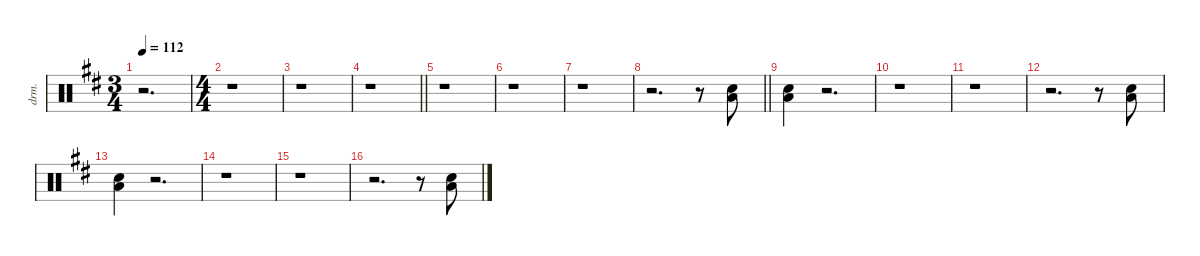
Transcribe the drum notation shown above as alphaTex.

\defaultSystemsLayout 4
\hideDynamics
\bracketExtendMode nobrackets
\otherSystemsTrackNameOrientation horizontal
\track ("Lars - Drums" "drm.") {defaultSystemsLayout 4 instrument percussion}
\staff {score}
\articulation defaults
\ts (3 4)
\beaming (8 2 2 2)
\tempo 112
\clef neutral
\ks bminor
r.2{d dy f beam Down} |
\ts (4 4)
\beaming (8 2 2 2 2)
r.1{beam Down} |
r.1{beam Down} |
\barLineRight lightlight
r.1{beam Down} |
r.1{beam Down} |
r.1{beam Down} |
r.1{beam Down} |
\barLineRight lightlight
r.2{d beam Down} r.8{beam Down} ("Low Floor Tom (hit)"{acc forcenatural} "Snare (hit) 2"{acc forcenatural}).8{beam Down} |
("Low Floor Tom (hit)"{acc forcenatural} "Snare (hit) 2"{acc forcenatural}).4{beam Down} r.2{d beam Down} |
r.1{beam Down} |
r.1{beam Down} |
r.2{d beam Down} r.8{beam Down} ("Low Floor Tom (hit)"{acc forcenatural} "Snare (hit) 2"{acc forcenatural}).8{beam Down} |
("Low Floor Tom (hit)"{acc forcenatural} "Snare (hit) 2"{acc forcenatural}).4{beam Down} r.2{d beam Down} |
r.1{beam Down} |
r.1{beam Down} |
r.2{d beam Down} r.8{beam Down} ("Low Floor Tom (hit)"{acc forcenatural} "Snare (hit) 2"{acc forcenatural}).8{beam Down}
